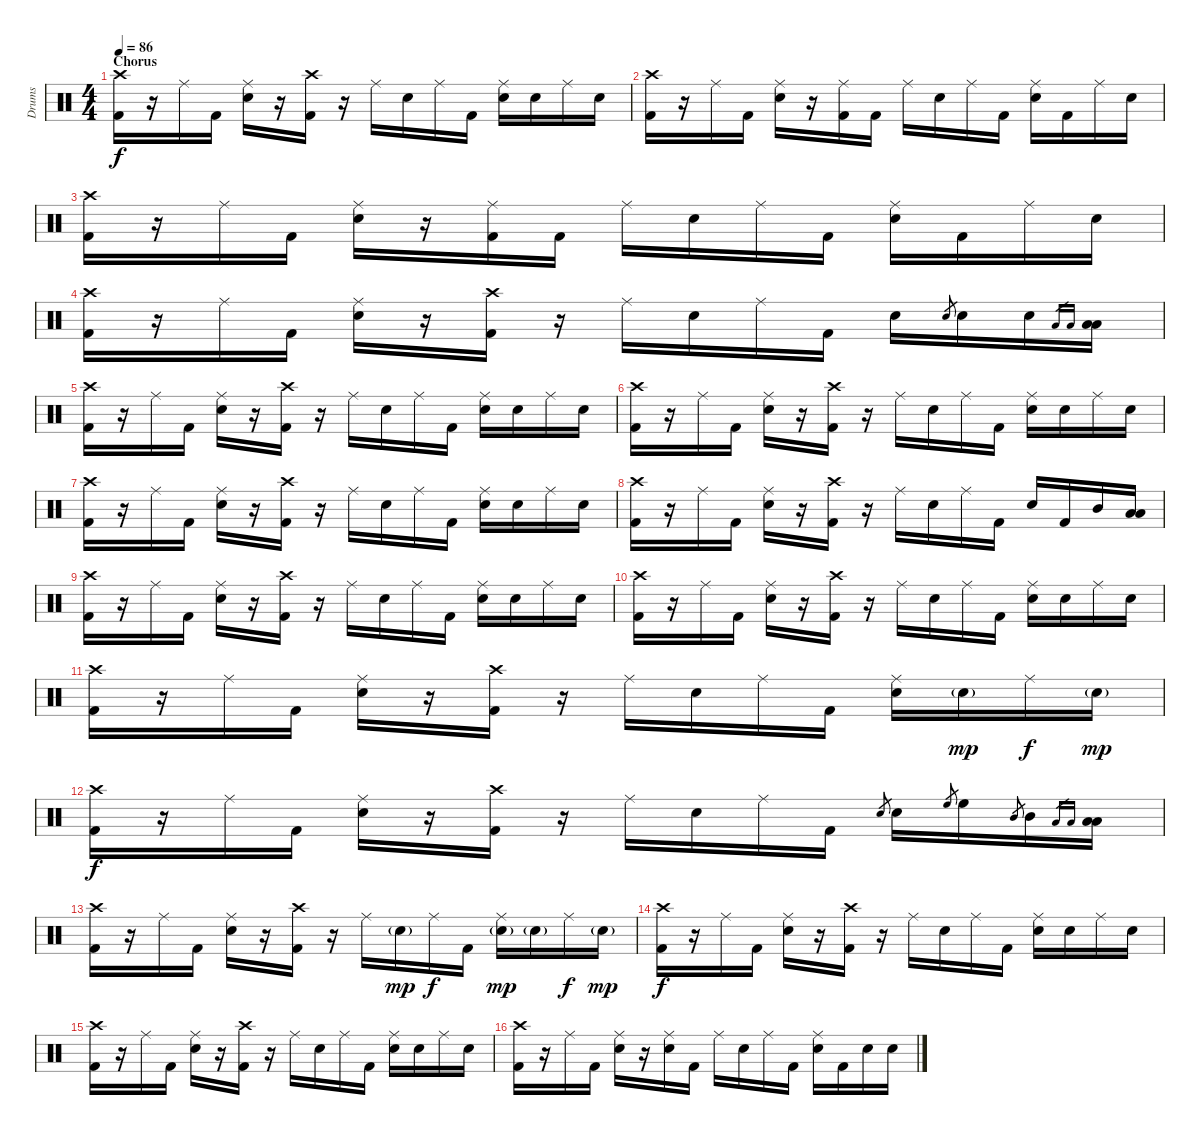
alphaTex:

\track ("Drums" "Drums") {instrument percussion}
\staff {score}
\articulation defaults
\ts (4 4)
\section ("" "Chorus")
\tempo 86
\clef neutral
\ks c
("Crash high (hit)" "Kick (hit) 2").16{dy f} r.16 "Ride (middle)".16 "Kick (hit) 2".16 ("Ride (middle)" "Snare (hit) 2").16 r.16 ("Crash high (hit)" "Kick (hit) 2").16 r.16 "Ride (middle)".16 "Snare (hit) 2".16 "Ride (middle)".16 "Kick (hit) 2".16 ("Ride (middle)" "Snare (hit) 2").16 "Snare (hit) 2".16 "Ride (middle)".16 "Snare (hit) 2".16 |
("Crash high (hit)" "Kick (hit) 2").16 r.16 "Ride (middle)".16 "Kick (hit) 2".16 ("Ride (middle)" "Snare (hit) 2").16 r.16 ("Ride (middle)" "Kick (hit) 2").16 "Kick (hit) 2".16 "Ride (middle)".16 "Snare (hit) 2".16 "Ride (middle)".16 "Kick (hit) 2".16 ("Ride (middle)" "Snare (hit) 2").16 "Kick (hit) 2".16 "Ride (middle)".16 "Snare (hit) 2".16 |
("Crash high (hit)" "Kick (hit) 2").16 r.16 "Ride (middle)".16 "Kick (hit) 2".16 ("Ride (middle)" "Snare (hit) 2").16 r.16 ("Ride (middle)" "Kick (hit) 2").16 "Kick (hit) 2".16 "Ride (middle)".16 "Snare (hit) 2".16 "Ride (middle)".16 "Kick (hit) 2".16 ("Ride (middle)" "Snare (hit) 2").16 "Kick (hit) 2".16 "Ride (middle)".16 "Snare (hit) 2".16 |
("Crash high (hit)" "Kick (hit) 2").16 r.16 "Ride (middle)".16 "Kick (hit) 2".16 ("Ride (middle)" "Snare (hit) 2").16 r.16 ("Crash high (hit)" "Kick (hit) 2").16 r.16 "Ride (middle)".16 "Snare (hit) 2".16 "Ride (middle)".16 "Kick (hit) 2".16 "Snare (hit) 2".16 "Snare (hit) 2".8{gr} "Snare (hit) 2".16 "Snare (hit) 2".16 "Low Floor Tom (hit)".16{gr} "Low Floor Tom (hit)".16{gr} ("Low Floor Tom (hit)" "Low Floor Tom (hit)").16 |
("Crash high (hit)" "Kick (hit) 2").16 r.16 "Ride (middle)".16 "Kick (hit) 2".16 ("Ride (middle)" "Snare (hit) 2").16 r.16 ("Crash high (hit)" "Kick (hit) 2").16 r.16 "Ride (middle)".16 "Snare (hit) 2".16 "Ride (middle)".16 "Kick (hit) 2".16 ("Ride (middle)" "Snare (hit) 2").16 "Snare (hit) 2".16 "Ride (middle)".16 "Snare (hit) 2".16 |
("Crash high (hit)" "Kick (hit) 2").16 r.16 "Ride (middle)".16 "Kick (hit) 2".16 ("Ride (middle)" "Snare (hit) 2").16 r.16 ("Crash high (hit)" "Kick (hit) 2").16 r.16 "Ride (middle)".16 "Snare (hit) 2".16 "Ride (middle)".16 "Kick (hit) 2".16 ("Ride (middle)" "Snare (hit) 2").16 "Snare (hit) 2".16 "Ride (middle)".16 "Snare (hit) 2".16 |
("Crash high (hit)" "Kick (hit) 2").16 r.16 "Ride (middle)".16 "Kick (hit) 2".16 ("Ride (middle)" "Snare (hit) 2").16 r.16 ("Crash high (hit)" "Kick (hit) 2").16 r.16 "Ride (middle)".16 "Snare (hit) 2".16 "Ride (middle)".16 "Kick (hit) 2".16 ("Ride (middle)" "Snare (hit) 2").16 "Snare (hit) 2".16 "Ride (middle)".16 "Snare (hit) 2".16 |
("Crash high (hit)" "Kick (hit) 2").16 r.16 "Ride (middle)".16 "Kick (hit) 2".16 ("Ride (middle)" "Snare (hit) 2").16 r.16 ("Crash high (hit)" "Kick (hit) 2").16 r.16 "Ride (middle)".16 "Snare (hit) 2".16 "Ride (middle)".16 "Kick (hit) 2".16 "Snare (hit) 2".16 "Kick (hit) 2".16 "Mid Tom (hit)".16 ("Low Floor Tom (hit)" "Low Floor Tom (hit)").16 |
("Crash high (hit)" "Kick (hit) 2").16 r.16 "Ride (middle)".16 "Kick (hit) 2".16 ("Ride (middle)" "Snare (hit) 2").16 r.16 ("Crash high (hit)" "Kick (hit) 2").16 r.16 "Ride (middle)".16 "Snare (hit) 2".16 "Ride (middle)".16 "Kick (hit) 2".16 ("Ride (middle)" "Snare (hit) 2").16 "Snare (hit) 2".16 "Ride (middle)".16 "Snare (hit) 2".16 |
("Crash high (hit)" "Kick (hit) 2").16 r.16 "Ride (middle)".16 "Kick (hit) 2".16 ("Ride (middle)" "Snare (hit) 2").16 r.16 ("Crash high (hit)" "Kick (hit) 2").16 r.16 "Ride (middle)".16 "Snare (hit) 2".16 "Ride (middle)".16 "Kick (hit) 2".16 ("Ride (middle)" "Snare (hit) 2").16 "Snare (hit) 2".16 "Ride (middle)".16 "Snare (hit) 2".16 |
("Crash high (hit)" "Kick (hit) 2").16 r.16 "Ride (middle)".16 "Kick (hit) 2".16 ("Ride (middle)" "Snare (hit) 2").16 r.16 ("Crash high (hit)" "Kick (hit) 2").16 r.16 "Ride (middle)".16 "Snare (hit) 2".16 "Ride (middle)".16 "Kick (hit) 2".16 ("Ride (middle)" "Snare (hit) 2").16 "Snare (hit) 2"{g}.16{dy mp} "Ride (middle)".16{dy f} "Snare (hit) 2"{g}.16{dy mp} |
("Crash high (hit)" "Kick (hit) 2").16{dy f} r.16 "Ride (middle)".16 "Kick (hit) 2".16 ("Ride (middle)" "Snare (hit) 2").16 r.16 ("Crash high (hit)" "Kick (hit) 2").16 r.16 "Ride (middle)".16 "Snare (hit) 2".16 "Ride (middle)".16 "Kick (hit) 2".16 "Snare (hit) 2".8{gr} "Snare (hit) 2".16 "High Floor Tom (hit)".8{gr} "High Floor Tom (hit)".16 "Mid Tom (hit)".8{gr} "Mid Tom (hit)".16 "Low Floor Tom (hit)".16{gr} "Low Floor Tom (hit)".16{gr} ("Low Floor Tom (hit)" "Low Floor Tom (hit)").16 |
("Crash high (hit)" "Kick (hit) 2").16 r.16 "Ride (middle)".16 "Kick (hit) 2".16 ("Ride (middle)" "Snare (hit) 2").16 r.16 ("Crash high (hit)" "Kick (hit) 2").16 r.16 "Ride (middle)".16 "Snare (hit) 2"{g}.16{dy mp} "Ride (middle)".16{dy f} "Kick (hit) 2".16 ("Ride (middle)" "Snare (hit) 2"{g}).16{dy mp} "Snare (hit) 2"{g}.16 "Ride (middle)".16{dy f} "Snare (hit) 2"{g}.16{dy mp} |
("Crash high (hit)" "Kick (hit) 2").16{dy f} r.16 "Ride (middle)".16 "Kick (hit) 2".16 ("Ride (middle)" "Snare (hit) 2").16 r.16 ("Crash high (hit)" "Kick (hit) 2").16 r.16 "Ride (middle)".16 "Snare (hit) 2".16 "Ride (middle)".16 "Kick (hit) 2".16 ("Ride (middle)" "Snare (hit) 2").16 "Snare (hit) 2".16 "Ride (middle)".16 "Snare (hit) 2".16 |
("Crash high (hit)" "Kick (hit) 2").16 r.16 "Ride (middle)".16 "Kick (hit) 2".16 ("Ride (middle)" "Snare (hit) 2").16 r.16 ("Crash high (hit)" "Kick (hit) 2").16 r.16 "Ride (middle)".16 "Snare (hit) 2".16 "Ride (middle)".16 "Kick (hit) 2".16 ("Ride (middle)" "Snare (hit) 2").16 "Snare (hit) 2".16 "Ride (middle)".16 "Snare (hit) 2".16 |
("Crash high (hit)" "Kick (hit) 2").16 r.16 "Ride (middle)".16 "Kick (hit) 2".16 ("Ride (middle)" "Snare (hit) 2").16 r.16 ("Ride (middle)" "Snare (hit) 2").16 "Kick (hit) 2".16 "Ride (middle)".16 "Snare (hit) 2".16 "Ride (middle)".16 "Kick (hit) 2".16 ("Ride (middle)" "Snare (hit) 2").16 "Kick (hit) 2".16 "Snare (hit) 2".16 "Snare (hit) 2".16
